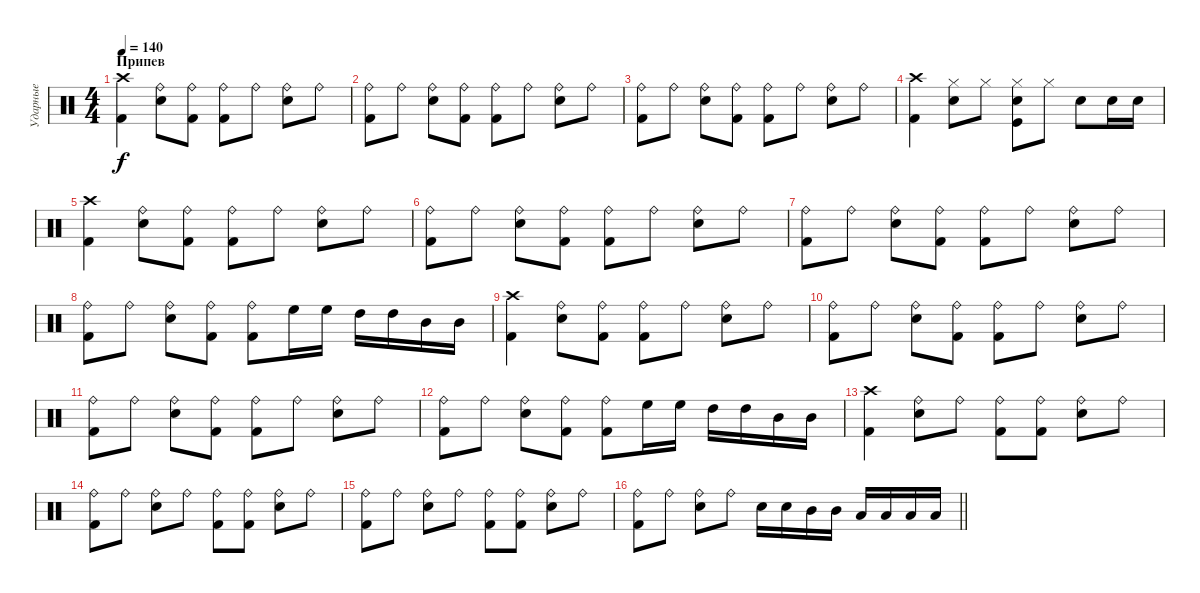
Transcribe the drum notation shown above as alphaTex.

\track ("Ударные" "Ударные") {solo instrument percussion}
\staff {score}
\articulation defaults
\ts (4 4)
\section ("" "Припев ")
\tempo 140
\clef neutral
\ks c
("Crash high (hit)" "Kick (hit) 2").4{dy f} ("Ride (bell)" "Electric Snare (hit)").8 ("Ride (bell)" "Kick (hit) 2").8 ("Ride (bell)" "Kick (hit) 2").8 "Ride (bell)".8 ("Ride (bell)" "Electric Snare (hit)").8 "Ride (bell)".8 |
("Ride (bell)" "Kick (hit) 2").8 "Ride (bell)".8 ("Ride (bell)" "Electric Snare (hit)").8 ("Ride (bell)" "Kick (hit) 2").8 ("Ride (bell)" "Kick (hit) 2").8 "Ride (bell)".8 ("Ride (bell)" "Electric Snare (hit)").8 "Ride (bell)".8 |
("Ride (bell)" "Kick (hit) 2").8 "Ride (bell)".8 ("Ride (bell)" "Electric Snare (hit)").8 ("Ride (bell)" "Kick (hit) 2").8 ("Ride (bell)" "Kick (hit) 2").8 "Ride (bell)".8 ("Ride (bell)" "Electric Snare (hit)").8 "Ride (bell)".8 |
("Crash high (hit)" "Kick (hit) 2").4 ("Hi-Hat (closed)" "Electric Snare (hit)").8 "Hi-Hat (closed)".8 ("Electric Snare (hit)" "Hi-Hat (closed)" "Kick (hit)").8 "Hi-Hat (closed)".8 "Electric Snare (hit)".8 "Electric Snare (hit)".16 "Electric Snare (hit)".16 |
("Crash high (hit)" "Kick (hit) 2").4 ("Ride (bell)" "Electric Snare (hit)").8 ("Ride (bell)" "Kick (hit) 2").8 ("Ride (bell)" "Kick (hit) 2").8 "Ride (bell)".8 ("Ride (bell)" "Electric Snare (hit)").8 "Ride (bell)".8 |
("Ride (bell)" "Kick (hit) 2").8 "Ride (bell)".8 ("Ride (bell)" "Electric Snare (hit)").8 ("Ride (bell)" "Kick (hit) 2").8 ("Ride (bell)" "Kick (hit) 2").8 "Ride (bell)".8 ("Ride (bell)" "Electric Snare (hit)").8 "Ride (bell)".8 |
("Ride (bell)" "Kick (hit) 2").8 "Ride (bell)".8 ("Ride (bell)" "Electric Snare (hit)").8 ("Ride (bell)" "Kick (hit) 2").8 ("Ride (bell)" "Kick (hit) 2").8 "Ride (bell)".8 ("Ride (bell)" "Electric Snare (hit)").8 "Ride (bell)".8 |
("Ride (bell)" "Kick (hit) 2").8 "Ride (bell)".8 ("Ride (bell)" "Electric Snare (hit)").8 ("Ride (bell)" "Kick (hit) 2").8 ("Ride (bell)" "Kick (hit) 2").8 "High Floor Tom (hit)".16 "High Floor Tom (hit)".16 "High Tom (hit)".16 "High Tom (hit)".16 "Mid Tom (hit)".16 "Mid Tom (hit)".16 |
("Crash high (hit)" "Kick (hit) 2").4 ("Ride (bell)" "Electric Snare (hit)").8 ("Ride (bell)" "Kick (hit) 2").8 ("Ride (bell)" "Kick (hit) 2").8 "Ride (bell)".8 ("Ride (bell)" "Electric Snare (hit)").8 "Ride (bell)".8 |
("Ride (bell)" "Kick (hit) 2").8 "Ride (bell)".8 ("Ride (bell)" "Electric Snare (hit)").8 ("Ride (bell)" "Kick (hit) 2").8 ("Ride (bell)" "Kick (hit) 2").8 "Ride (bell)".8 ("Ride (bell)" "Electric Snare (hit)").8 "Ride (bell)".8 |
("Ride (bell)" "Kick (hit) 2").8 "Ride (bell)".8 ("Ride (bell)" "Electric Snare (hit)").8 ("Ride (bell)" "Kick (hit) 2").8 ("Ride (bell)" "Kick (hit) 2").8 "Ride (bell)".8 ("Ride (bell)" "Electric Snare (hit)").8 "Ride (bell)".8 |
("Ride (bell)" "Kick (hit) 2").8 "Ride (bell)".8 ("Ride (bell)" "Electric Snare (hit)").8 ("Ride (bell)" "Kick (hit) 2").8 ("Ride (bell)" "Kick (hit) 2").8 "High Floor Tom (hit)".16 "High Floor Tom (hit)".16 "High Tom (hit)".16 "High Tom (hit)".16 "Mid Tom (hit)".16 "Mid Tom (hit)".16 |
("Crash high (hit)" "Kick (hit) 2").4 ("Ride (bell)" "Electric Snare (hit)").8 "Ride (bell)".8 ("Ride (bell)" "Kick (hit) 2").8 ("Ride (bell)" "Kick (hit) 2").8 ("Ride (bell)" "Electric Snare (hit)").8 "Ride (bell)".8 |
("Ride (bell)" "Kick (hit) 2").8 "Ride (bell)".8 ("Ride (bell)" "Electric Snare (hit)").8 "Ride (bell)".8 ("Ride (bell)" "Kick (hit) 2").8 ("Ride (bell)" "Kick (hit) 2").8 ("Ride (bell)" "Electric Snare (hit)").8 "Ride (bell)".8 |
("Ride (bell)" "Kick (hit) 2").8 "Ride (bell)".8 ("Ride (bell)" "Electric Snare (hit)").8 "Ride (bell)".8 ("Ride (bell)" "Kick (hit) 2").8 ("Ride (bell)" "Kick (hit) 2").8 ("Ride (bell)" "Electric Snare (hit)").8 "Ride (bell)".8 |
\barLineRight lightlight
("Ride (bell)" "Kick (hit) 2").8 "Ride (bell)".8 ("Ride (bell)" "Electric Snare (hit)").8 "Ride (bell)".8 "Snare (hit) 2".16 "Snare (hit) 2".16 "Mid Tom (hit)".16 "Mid Tom (hit)".16 "Low Tom (hit)".16 "Low Tom (hit)".16 "Low Floor Tom (hit)".16 "Low Floor Tom (hit)".16
